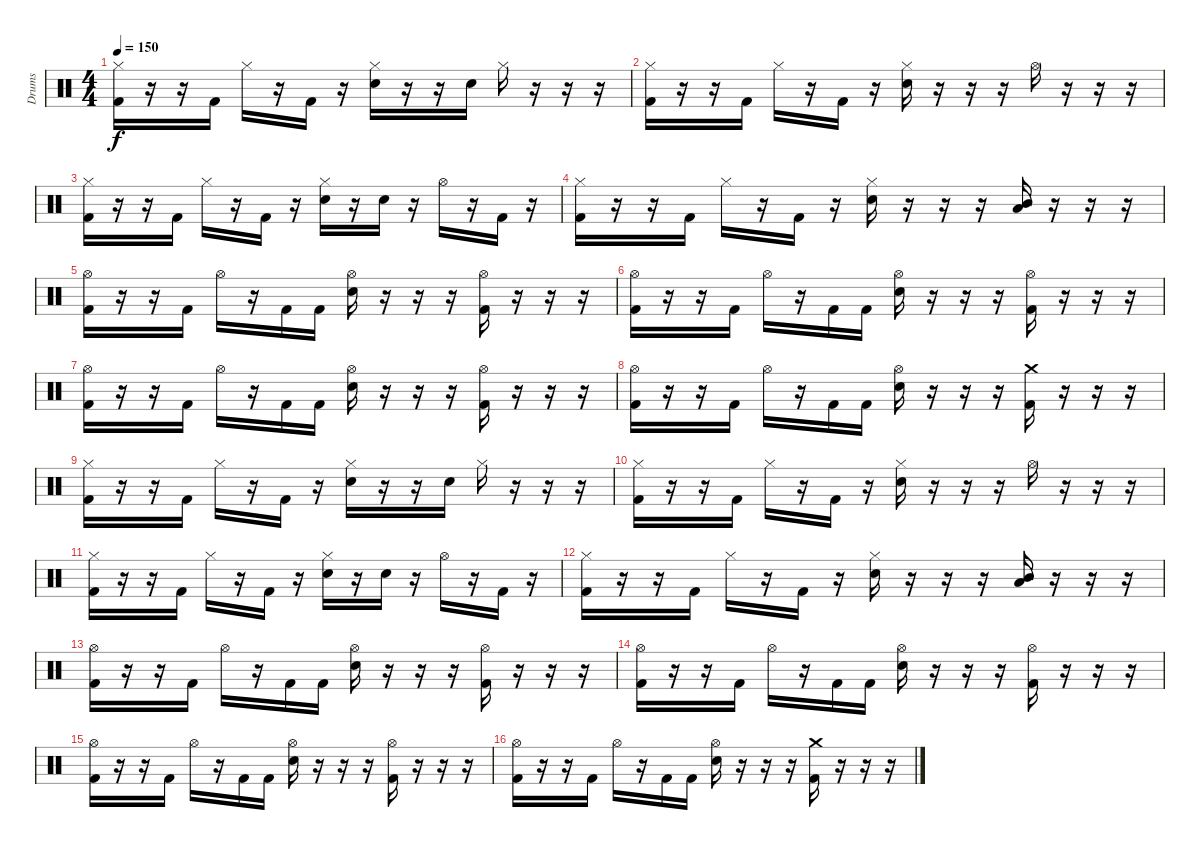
\track ("Drums" "Drums") {instrument percussion}
\staff {score}
\articulation defaults
\ts (4 4)
\tempo 150
\clef neutral
\ks c
("Hi-Hat (closed)" "Kick (hit) 2").16{dy f} r.16 r.16 "Kick (hit) 2".16 "Hi-Hat (closed)".16 r.16 "Kick (hit) 2".16 r.16 ("Hi-Hat (closed)" "Electric Snare (hit)").16 r.16 r.16 "Electric Snare (hit)".16 "Hi-Hat (closed)".16 r.16 r.16 r.16 |
("Hi-Hat (closed)" "Kick (hit) 2").16 r.16 r.16 "Kick (hit) 2".16 "Hi-Hat (closed)".16 r.16 "Kick (hit) 2".16 r.16 ("Hi-Hat (closed)" "Electric Snare (hit)").16 r.16 r.16 r.16 "Hi-Hat (open)".16 r.16 r.16 r.16 |
("Hi-Hat (closed)" "Kick (hit) 2").16 r.16 r.16 "Kick (hit) 2".16 "Hi-Hat (closed)".16 r.16 "Kick (hit) 2".16 r.16 ("Hi-Hat (closed)" "Electric Snare (hit)").16 r.16 "Electric Snare (hit)".16 r.16 "Hi-Hat (open)".16 r.16 "Kick (hit) 2".16 r.16 |
("Hi-Hat (closed)" "Kick (hit) 2").16 r.16 r.16 "Kick (hit) 2".16 "Hi-Hat (closed)".16 r.16 "Kick (hit) 2".16 r.16 ("Hi-Hat (closed)" "Electric Snare (hit)").16 r.16 r.16 r.16 ("Mid Tom (hit)" "Low Floor Tom (hit)").16 r.16 r.16 r.16 |
("Hi-Hat (open)" "Kick (hit) 2").16 r.16 r.16 "Kick (hit) 2".16 "Hi-Hat (open)".16 r.16 "Kick (hit) 2".16 "Kick (hit) 2".16 ("Hi-Hat (open)" "Electric Snare (hit)").16 r.16 r.16 r.16 ("Hi-Hat (open)" "Kick (hit) 2").16 r.16 r.16 r.16 |
("Hi-Hat (open)" "Kick (hit) 2").16 r.16 r.16 "Kick (hit) 2".16 "Hi-Hat (open)".16 r.16 "Kick (hit) 2".16 "Kick (hit) 2".16 ("Hi-Hat (open)" "Electric Snare (hit)").16 r.16 r.16 r.16 ("Hi-Hat (open)" "Kick (hit) 2").16 r.16 r.16 r.16 |
("Hi-Hat (open)" "Kick (hit) 2").16 r.16 r.16 "Kick (hit) 2".16 "Hi-Hat (open)".16 r.16 "Kick (hit) 2".16 "Kick (hit) 2".16 ("Hi-Hat (open)" "Electric Snare (hit)").16 r.16 r.16 r.16 ("Hi-Hat (open)" "Kick (hit) 2").16 r.16 r.16 r.16 |
("Hi-Hat (open)" "Kick (hit) 2").16 r.16 r.16 "Kick (hit) 2".16 "Hi-Hat (open)".16 r.16 "Kick (hit) 2".16 "Kick (hit) 2".16 ("Hi-Hat (open)" "Electric Snare (hit)").16 r.16 r.16 r.16 ("Crash medium (hit)" "Kick (hit) 2").16 r.16 r.16 r.16 |
("Hi-Hat (closed)" "Kick (hit) 2").16 r.16 r.16 "Kick (hit) 2".16 "Hi-Hat (closed)".16 r.16 "Kick (hit) 2".16 r.16 ("Hi-Hat (closed)" "Electric Snare (hit)").16 r.16 r.16 "Electric Snare (hit)".16 "Hi-Hat (closed)".16 r.16 r.16 r.16 |
("Hi-Hat (closed)" "Kick (hit) 2").16 r.16 r.16 "Kick (hit) 2".16 "Hi-Hat (closed)".16 r.16 "Kick (hit) 2".16 r.16 ("Hi-Hat (closed)" "Electric Snare (hit)").16 r.16 r.16 r.16 "Hi-Hat (open)".16 r.16 r.16 r.16 |
("Hi-Hat (closed)" "Kick (hit) 2").16 r.16 r.16 "Kick (hit) 2".16 "Hi-Hat (closed)".16 r.16 "Kick (hit) 2".16 r.16 ("Hi-Hat (closed)" "Electric Snare (hit)").16 r.16 "Electric Snare (hit)".16 r.16 "Hi-Hat (open)".16 r.16 "Kick (hit) 2".16 r.16 |
("Hi-Hat (closed)" "Kick (hit) 2").16 r.16 r.16 "Kick (hit) 2".16 "Hi-Hat (closed)".16 r.16 "Kick (hit) 2".16 r.16 ("Hi-Hat (closed)" "Electric Snare (hit)").16 r.16 r.16 r.16 ("Mid Tom (hit)" "Low Floor Tom (hit)").16 r.16 r.16 r.16 |
("Hi-Hat (open)" "Kick (hit) 2").16 r.16 r.16 "Kick (hit) 2".16 "Hi-Hat (open)".16 r.16 "Kick (hit) 2".16 "Kick (hit) 2".16 ("Hi-Hat (open)" "Electric Snare (hit)").16 r.16 r.16 r.16 ("Hi-Hat (open)" "Kick (hit) 2").16 r.16 r.16 r.16 |
("Hi-Hat (open)" "Kick (hit) 2").16 r.16 r.16 "Kick (hit) 2".16 "Hi-Hat (open)".16 r.16 "Kick (hit) 2".16 "Kick (hit) 2".16 ("Hi-Hat (open)" "Electric Snare (hit)").16 r.16 r.16 r.16 ("Hi-Hat (open)" "Kick (hit) 2").16 r.16 r.16 r.16 |
("Hi-Hat (open)" "Kick (hit) 2").16 r.16 r.16 "Kick (hit) 2".16 "Hi-Hat (open)".16 r.16 "Kick (hit) 2".16 "Kick (hit) 2".16 ("Hi-Hat (open)" "Electric Snare (hit)").16 r.16 r.16 r.16 ("Hi-Hat (open)" "Kick (hit) 2").16 r.16 r.16 r.16 |
("Hi-Hat (open)" "Kick (hit) 2").16 r.16 r.16 "Kick (hit) 2".16 "Hi-Hat (open)".16 r.16 "Kick (hit) 2".16 "Kick (hit) 2".16 ("Hi-Hat (open)" "Electric Snare (hit)").16 r.16 r.16 r.16 ("Crash medium (hit)" "Kick (hit) 2").16 r.16 r.16 r.16
